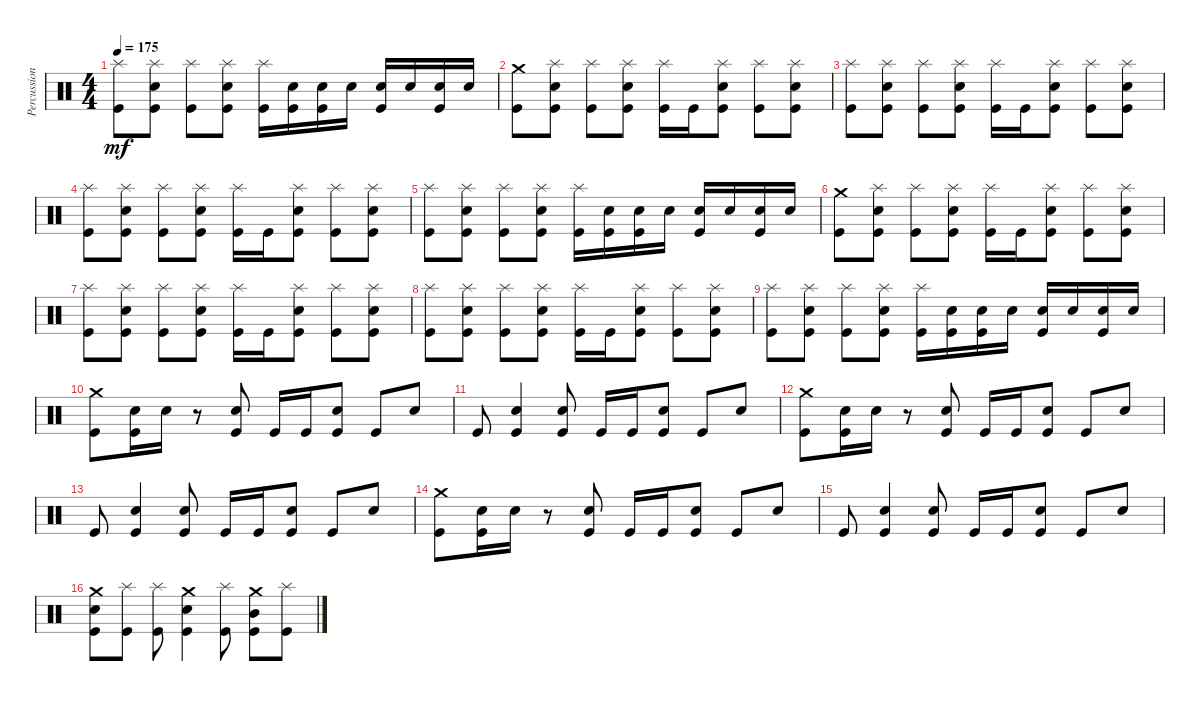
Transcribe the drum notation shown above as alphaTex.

\track ("Percussioni" "Percussion") {instrument percussion}
\staff {score}
\articulation defaults
\ts (4 4)
\tempo 175
\clef neutral
\ks c
("Splash (hit)" "Kick (hit)").8{dy mf} ("Electric Snare (hit)" "Splash (hit)" "Kick (hit)").8 ("Splash (hit)" "Kick (hit)").8 ("Electric Snare (hit)" "Splash (hit)" "Kick (hit)").8 ("Splash (hit)" "Kick (hit)").16 ("Electric Snare (hit)" "Kick (hit)").16 ("Electric Snare (hit)" "Kick (hit)").16 "Electric Snare (hit)".16 ("Electric Snare (hit)" "Kick (hit)").16 "Electric Snare (hit)".16 ("Electric Snare (hit)" "Kick (hit)").16 "Electric Snare (hit)".16 |
("Crash medium (hit)" "Kick (hit)").8 ("Electric Snare (hit)" "Splash (hit)" "Kick (hit)").8 ("Splash (hit)" "Kick (hit)").8 ("Electric Snare (hit)" "Splash (hit)" "Kick (hit)").8 ("Splash (hit)" "Kick (hit)").16 "Kick (hit)".16 ("Electric Snare (hit)" "Splash (hit)" "Kick (hit)").8 ("Splash (hit)" "Kick (hit)").8 ("Electric Snare (hit)" "Splash (hit)" "Kick (hit)").8 |
("Splash (hit)" "Kick (hit)").8 ("Electric Snare (hit)" "Splash (hit)" "Kick (hit)").8 ("Splash (hit)" "Kick (hit)").8 ("Electric Snare (hit)" "Splash (hit)" "Kick (hit)").8 ("Splash (hit)" "Kick (hit)").16 "Kick (hit)".16 ("Electric Snare (hit)" "Splash (hit)" "Kick (hit)").8 ("Splash (hit)" "Kick (hit)").8 ("Electric Snare (hit)" "Splash (hit)" "Kick (hit)").8 |
("Splash (hit)" "Kick (hit)").8 ("Electric Snare (hit)" "Splash (hit)" "Kick (hit)").8 ("Splash (hit)" "Kick (hit)").8 ("Electric Snare (hit)" "Splash (hit)" "Kick (hit)").8 ("Splash (hit)" "Kick (hit)").16 "Kick (hit)".16 ("Electric Snare (hit)" "Splash (hit)" "Kick (hit)").8 ("Splash (hit)" "Kick (hit)").8 ("Electric Snare (hit)" "Splash (hit)" "Kick (hit)").8 |
("Splash (hit)" "Kick (hit)").8 ("Electric Snare (hit)" "Splash (hit)" "Kick (hit)").8 ("Splash (hit)" "Kick (hit)").8 ("Electric Snare (hit)" "Splash (hit)" "Kick (hit)").8 ("Splash (hit)" "Kick (hit)").16 ("Electric Snare (hit)" "Kick (hit)").16 ("Electric Snare (hit)" "Kick (hit)").16 "Electric Snare (hit)".16 ("Electric Snare (hit)" "Kick (hit)").16 "Electric Snare (hit)".16 ("Electric Snare (hit)" "Kick (hit)").16 "Electric Snare (hit)".16 |
("Crash medium (hit)" "Kick (hit)").8 ("Electric Snare (hit)" "Splash (hit)" "Kick (hit)").8 ("Splash (hit)" "Kick (hit)").8 ("Electric Snare (hit)" "Splash (hit)" "Kick (hit)").8 ("Splash (hit)" "Kick (hit)").16 "Kick (hit)".16 ("Electric Snare (hit)" "Splash (hit)" "Kick (hit)").8 ("Splash (hit)" "Kick (hit)").8 ("Electric Snare (hit)" "Splash (hit)" "Kick (hit)").8 |
("Splash (hit)" "Kick (hit)").8 ("Electric Snare (hit)" "Splash (hit)" "Kick (hit)").8 ("Splash (hit)" "Kick (hit)").8 ("Electric Snare (hit)" "Splash (hit)" "Kick (hit)").8 ("Splash (hit)" "Kick (hit)").16 "Kick (hit)".16 ("Electric Snare (hit)" "Splash (hit)" "Kick (hit)").8 ("Splash (hit)" "Kick (hit)").8 ("Electric Snare (hit)" "Splash (hit)" "Kick (hit)").8 |
("Splash (hit)" "Kick (hit)").8 ("Electric Snare (hit)" "Splash (hit)" "Kick (hit)").8 ("Splash (hit)" "Kick (hit)").8 ("Electric Snare (hit)" "Splash (hit)" "Kick (hit)").8 ("Splash (hit)" "Kick (hit)").16 "Kick (hit)".16 ("Electric Snare (hit)" "Splash (hit)" "Kick (hit)").8 ("Splash (hit)" "Kick (hit)").8 ("Electric Snare (hit)" "Splash (hit)" "Kick (hit)").8 |
("Splash (hit)" "Kick (hit)").8 ("Electric Snare (hit)" "Splash (hit)" "Kick (hit)").8 ("Splash (hit)" "Kick (hit)").8 ("Electric Snare (hit)" "Splash (hit)" "Kick (hit)").8 ("Splash (hit)" "Kick (hit)").16 ("Electric Snare (hit)" "Kick (hit)").16 ("Electric Snare (hit)" "Kick (hit)").16 "Electric Snare (hit)".16 ("Electric Snare (hit)" "Kick (hit)").16 "Electric Snare (hit)".16 ("Electric Snare (hit)" "Kick (hit)").16 "Electric Snare (hit)".16 |
("Crash medium (hit)" "Kick (hit)").8 ("Electric Snare (hit)" "Kick (hit)").16 "Electric Snare (hit)".16 r.8 ("Electric Snare (hit)" "Kick (hit)").8 "Kick (hit)".16 "Kick (hit)".16 ("Electric Snare (hit)" "Kick (hit)").8 "Kick (hit)".8 "Electric Snare (hit)".8 |
"Kick (hit)".8 ("Electric Snare (hit)" "Kick (hit)").4 ("Electric Snare (hit)" "Kick (hit)").8 "Kick (hit)".16 "Kick (hit)".16 ("Electric Snare (hit)" "Kick (hit)").8 "Kick (hit)".8 "Electric Snare (hit)".8 |
("Crash medium (hit)" "Kick (hit)").8 ("Electric Snare (hit)" "Kick (hit)").16 "Electric Snare (hit)".16 r.8 ("Electric Snare (hit)" "Kick (hit)").8 "Kick (hit)".16 "Kick (hit)".16 ("Electric Snare (hit)" "Kick (hit)").8 "Kick (hit)".8 "Electric Snare (hit)".8 |
"Kick (hit)".8 ("Electric Snare (hit)" "Kick (hit)").4 ("Electric Snare (hit)" "Kick (hit)").8 "Kick (hit)".16 "Kick (hit)".16 ("Electric Snare (hit)" "Kick (hit)").8 "Kick (hit)".8 "Electric Snare (hit)".8 |
("Crash medium (hit)" "Kick (hit)").8 ("Electric Snare (hit)" "Kick (hit)").16 "Electric Snare (hit)".16 r.8 ("Electric Snare (hit)" "Kick (hit)").8 "Kick (hit)".16 "Kick (hit)".16 ("Electric Snare (hit)" "Kick (hit)").8 "Kick (hit)".8 "Electric Snare (hit)".8 |
"Kick (hit)".8 ("Electric Snare (hit)" "Kick (hit)").4 ("Electric Snare (hit)" "Kick (hit)").8 "Kick (hit)".16 "Kick (hit)".16 ("Electric Snare (hit)" "Kick (hit)").8 "Kick (hit)".8 "Electric Snare (hit)".8 |
("Kick (hit)" "Electric Snare (hit)" "Crash medium (hit)").8 ("Kick (hit)" "Splash (hit)").8 ("Kick (hit)" "Splash (hit)").8 ("Kick (hit)" "Electric Snare (hit)" "Crash medium (hit)").4 ("Kick (hit)" "Splash (hit)").8 ("Kick (hit)" "Mid Tom (hit)" "Crash medium (hit)").8 ("Kick (hit)" "Splash (hit)").8
